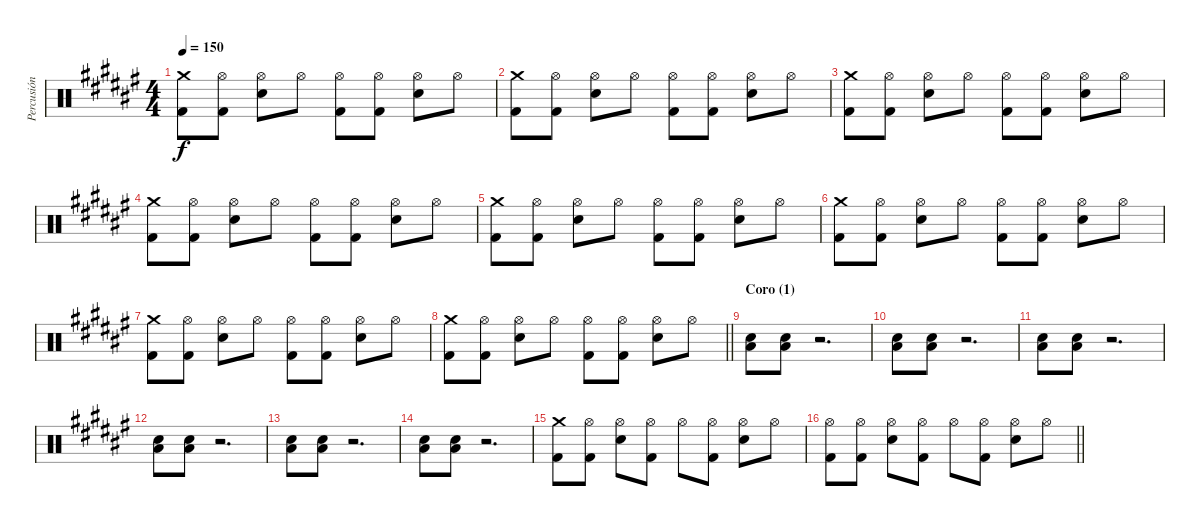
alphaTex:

\track ("Percusión" "Percusión") {instrument percussion}
\staff {score}
\articulation defaults
\ts (4 4)
\tempo 150
\clef neutral
\ks d#minor
("Crash medium (hit)" "Kick (hit) 2").8{dy f} ("Hi-Hat (open)" "Kick (hit) 2").8 ("Hi-Hat (open)" "Electric Snare (hit)").8 "Hi-Hat (open)".8 ("Hi-Hat (open)" "Kick (hit) 2").8 ("Hi-Hat (open)" "Kick (hit) 2").8 ("Hi-Hat (open)" "Electric Snare (hit)").8 "Hi-Hat (open)".8 |
("Crash medium (hit)" "Kick (hit) 2").8 ("Hi-Hat (open)" "Kick (hit) 2").8 ("Hi-Hat (open)" "Electric Snare (hit)").8 "Hi-Hat (open)".8 ("Hi-Hat (open)" "Kick (hit) 2").8 ("Hi-Hat (open)" "Kick (hit) 2").8 ("Hi-Hat (open)" "Electric Snare (hit)").8 "Hi-Hat (open)".8 |
("Crash medium (hit)" "Kick (hit) 2").8 ("Hi-Hat (open)" "Kick (hit) 2").8 ("Hi-Hat (open)" "Electric Snare (hit)").8 "Hi-Hat (open)".8 ("Hi-Hat (open)" "Kick (hit) 2").8 ("Hi-Hat (open)" "Kick (hit) 2").8 ("Hi-Hat (open)" "Electric Snare (hit)").8 "Hi-Hat (open)".8 |
("Crash medium (hit)" "Kick (hit) 2").8 ("Hi-Hat (open)" "Kick (hit) 2").8 ("Hi-Hat (open)" "Electric Snare (hit)").8 "Hi-Hat (open)".8 ("Hi-Hat (open)" "Kick (hit) 2").8 ("Hi-Hat (open)" "Kick (hit) 2").8 ("Hi-Hat (open)" "Electric Snare (hit)").8 "Hi-Hat (open)".8 |
("Crash medium (hit)" "Kick (hit) 2").8 ("Hi-Hat (open)" "Kick (hit) 2").8 ("Hi-Hat (open)" "Electric Snare (hit)").8 "Hi-Hat (open)".8 ("Hi-Hat (open)" "Kick (hit) 2").8 ("Hi-Hat (open)" "Kick (hit) 2").8 ("Hi-Hat (open)" "Electric Snare (hit)").8 "Hi-Hat (open)".8 |
("Crash medium (hit)" "Kick (hit) 2").8 ("Hi-Hat (open)" "Kick (hit) 2").8 ("Hi-Hat (open)" "Electric Snare (hit)").8 "Hi-Hat (open)".8 ("Hi-Hat (open)" "Kick (hit) 2").8 ("Hi-Hat (open)" "Kick (hit) 2").8 ("Hi-Hat (open)" "Electric Snare (hit)").8 "Hi-Hat (open)".8 |
("Crash medium (hit)" "Kick (hit) 2").8 ("Hi-Hat (open)" "Kick (hit) 2").8 ("Hi-Hat (open)" "Electric Snare (hit)").8 "Hi-Hat (open)".8 ("Hi-Hat (open)" "Kick (hit) 2").8 ("Hi-Hat (open)" "Kick (hit) 2").8 ("Hi-Hat (open)" "Electric Snare (hit)").8 "Hi-Hat (open)".8 |
\barLineRight lightlight
("Crash medium (hit)" "Kick (hit) 2").8 ("Hi-Hat (open)" "Kick (hit) 2").8 ("Hi-Hat (open)" "Electric Snare (hit)").8 "Hi-Hat (open)".8 ("Hi-Hat (open)" "Kick (hit) 2").8 ("Hi-Hat (open)" "Kick (hit) 2").8 ("Hi-Hat (open)" "Electric Snare (hit)").8 "Hi-Hat (open)".8 |
\section ("" "Coro (1)")
("Electric Snare (hit)" "Low Floor Tom (hit)").8 ("Electric Snare (hit)" "Low Floor Tom (hit)").8 r.2{d} |
("Electric Snare (hit)" "Low Floor Tom (hit)").8 ("Electric Snare (hit)" "Low Floor Tom (hit)").8 r.2{d} |
("Electric Snare (hit)" "Low Floor Tom (hit)").8 ("Electric Snare (hit)" "Low Floor Tom (hit)").8 r.2{d} |
("Electric Snare (hit)" "Low Floor Tom (hit)").8 ("Electric Snare (hit)" "Low Floor Tom (hit)").8 r.2{d} |
("Electric Snare (hit)" "Low Floor Tom (hit)").8 ("Electric Snare (hit)" "Low Floor Tom (hit)").8 r.2{d} |
("Electric Snare (hit)" "Low Floor Tom (hit)").8 ("Electric Snare (hit)" "Low Floor Tom (hit)").8 r.2{d} |
("Crash medium (hit)" "Kick (hit) 2").8 ("Hi-Hat (open)" "Kick (hit) 2").8 ("Hi-Hat (open)" "Electric Snare (hit)").8 ("Hi-Hat (open)" "Kick (hit) 2").8 "Hi-Hat (open)".8 ("Hi-Hat (open)" "Kick (hit) 2").8 ("Hi-Hat (open)" "Electric Snare (hit)").8 "Hi-Hat (open)".8 |
\barLineRight lightlight
("Hi-Hat (open)" "Kick (hit) 2").8 ("Hi-Hat (open)" "Kick (hit) 2").8 ("Hi-Hat (open)" "Electric Snare (hit)").8 ("Hi-Hat (open)" "Kick (hit) 2").8 "Hi-Hat (open)".8 ("Hi-Hat (open)" "Kick (hit) 2").8 ("Hi-Hat (open)" "Electric Snare (hit)").8 "Hi-Hat (open)".8
